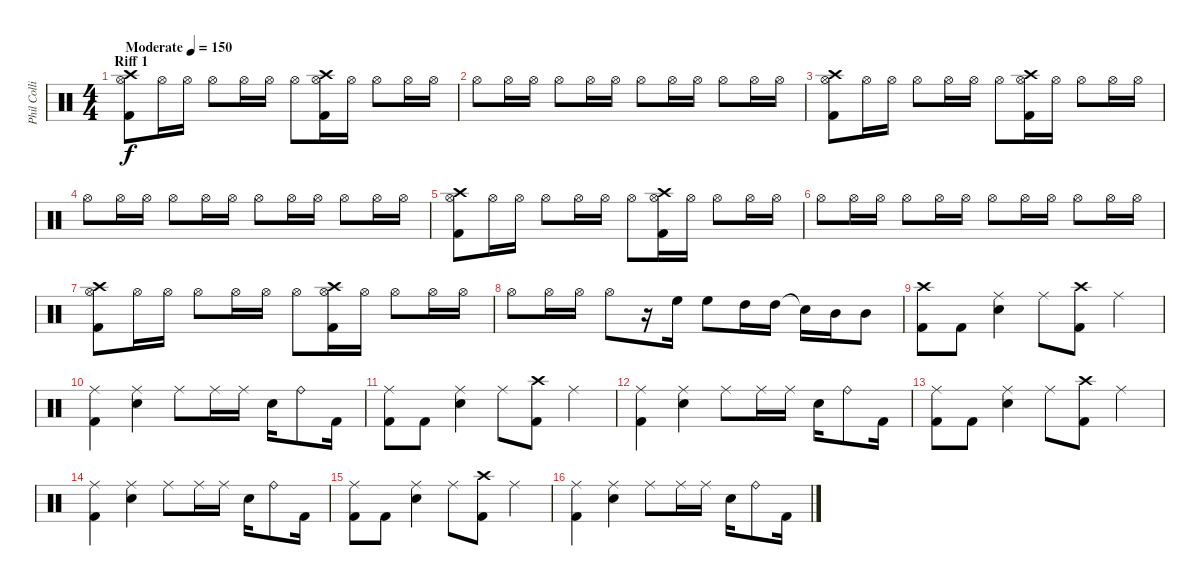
\track ("Phil Collins [Drums]" "Phil Colli") {instrument percussion}
\staff {score}
\articulation defaults
\ts (4 4)
\section ("" "Riff 1")
\tempo (150 "Moderate")
\clef neutral
\ks c
("Crash high (hit)" "Hi-Hat (open)" "Kick (hit) 2").8{dy f} "Hi-Hat (open)".16 "Hi-Hat (open)".16 "Hi-Hat (open)".8 "Hi-Hat (open)".16 "Hi-Hat (open)".16 "Hi-Hat (open)".8 ("Crash high (hit)" "Hi-Hat (open)" "Kick (hit) 2").16 "Hi-Hat (open)".16 "Hi-Hat (open)".8 "Hi-Hat (open)".16 "Hi-Hat (open)".16 |
"Hi-Hat (open)".8 "Hi-Hat (open)".16 "Hi-Hat (open)".16 "Hi-Hat (open)".8 "Hi-Hat (open)".16 "Hi-Hat (open)".16 "Hi-Hat (open)".8 "Hi-Hat (open)".16 "Hi-Hat (open)".16 "Hi-Hat (open)".8 "Hi-Hat (open)".16 "Hi-Hat (open)".16 |
("Crash high (hit)" "Hi-Hat (open)" "Kick (hit) 2").8 "Hi-Hat (open)".16 "Hi-Hat (open)".16 "Hi-Hat (open)".8 "Hi-Hat (open)".16 "Hi-Hat (open)".16 "Hi-Hat (open)".8 ("Crash high (hit)" "Hi-Hat (open)" "Kick (hit) 2").16 "Hi-Hat (open)".16 "Hi-Hat (open)".8 "Hi-Hat (open)".16 "Hi-Hat (open)".16 |
"Hi-Hat (open)".8 "Hi-Hat (open)".16 "Hi-Hat (open)".16 "Hi-Hat (open)".8 "Hi-Hat (open)".16 "Hi-Hat (open)".16 "Hi-Hat (open)".8 "Hi-Hat (open)".16 "Hi-Hat (open)".16 "Hi-Hat (open)".8 "Hi-Hat (open)".16 "Hi-Hat (open)".16 |
("Crash high (hit)" "Hi-Hat (open)" "Kick (hit) 2").8 "Hi-Hat (open)".16 "Hi-Hat (open)".16 "Hi-Hat (open)".8 "Hi-Hat (open)".16 "Hi-Hat (open)".16 "Hi-Hat (open)".8 ("Crash high (hit)" "Hi-Hat (open)" "Kick (hit) 2").16 "Hi-Hat (open)".16 "Hi-Hat (open)".8 "Hi-Hat (open)".16 "Hi-Hat (open)".16 |
"Hi-Hat (open)".8 "Hi-Hat (open)".16 "Hi-Hat (open)".16 "Hi-Hat (open)".8 "Hi-Hat (open)".16 "Hi-Hat (open)".16 "Hi-Hat (open)".8 "Hi-Hat (open)".16 "Hi-Hat (open)".16 "Hi-Hat (open)".8 "Hi-Hat (open)".16 "Hi-Hat (open)".16 |
("Crash high (hit)" "Hi-Hat (open)" "Kick (hit) 2").8 "Hi-Hat (open)".16 "Hi-Hat (open)".16 "Hi-Hat (open)".8 "Hi-Hat (open)".16 "Hi-Hat (open)".16 "Hi-Hat (open)".8 ("Crash high (hit)" "Hi-Hat (open)" "Kick (hit) 2").16 "Hi-Hat (open)".16 "Hi-Hat (open)".8 "Hi-Hat (open)".16 "Hi-Hat (open)".16 |
"Hi-Hat (open)".8 "Hi-Hat (open)".16 "Hi-Hat (open)".16 "Hi-Hat (open)".8 r.16 "High Floor Tom (hit)".16 "High Floor Tom (hit)".8 "High Tom (hit)".16 "High Tom (hit)".16 "Snare (hit)"{t}.16 "Mid Tom (hit)".16 "Mid Tom (hit)".8 |
("Crash high (hit)" "Kick (hit) 2").8 "Kick (hit) 2".8 ("Ride (middle)" "Electric Snare (hit)").4 "Ride (middle)".8 ("Crash high (hit)" "Kick (hit) 2").8 "Ride (middle)".4 |
("Ride (middle)" "Kick (hit) 2").4 ("Ride (middle)" "Electric Snare (hit)").4 "Ride (middle)".8 "Ride (middle)".16 "Ride (middle)".16 "Electric Snare (hit)".16 "Ride (bell)".8 "Kick (hit) 2".16 |
("Ride (middle)" "Kick (hit) 2").8 "Kick (hit) 2".8 ("Ride (middle)" "Electric Snare (hit)").4 "Ride (middle)".8 ("Crash high (hit)" "Kick (hit) 2").8 "Ride (middle)".4 |
("Ride (middle)" "Kick (hit) 2").4 ("Ride (middle)" "Electric Snare (hit)").4 "Ride (middle)".8 "Ride (middle)".16 "Ride (middle)".16 "Electric Snare (hit)".16 "Ride (bell)".8 "Kick (hit) 2".16 |
("Ride (middle)" "Kick (hit) 2").8 "Kick (hit) 2".8 ("Ride (middle)" "Electric Snare (hit)").4 "Ride (middle)".8 ("Crash high (hit)" "Kick (hit) 2").8 "Ride (middle)".4 |
("Ride (middle)" "Kick (hit) 2").4 ("Ride (middle)" "Electric Snare (hit)").4 "Ride (middle)".8 "Ride (middle)".16 "Ride (middle)".16 "Electric Snare (hit)".16 "Ride (bell)".8 "Kick (hit) 2".16 |
("Ride (middle)" "Kick (hit) 2").8 "Kick (hit) 2".8 ("Ride (middle)" "Electric Snare (hit)").4 "Ride (middle)".8 ("Crash high (hit)" "Kick (hit) 2").8 "Ride (middle)".4 |
("Ride (middle)" "Kick (hit) 2").4 ("Ride (middle)" "Electric Snare (hit)").4 "Ride (middle)".8 "Ride (middle)".16 "Ride (middle)".16 "Electric Snare (hit)".16 "Ride (bell)".8 "Kick (hit) 2".16
